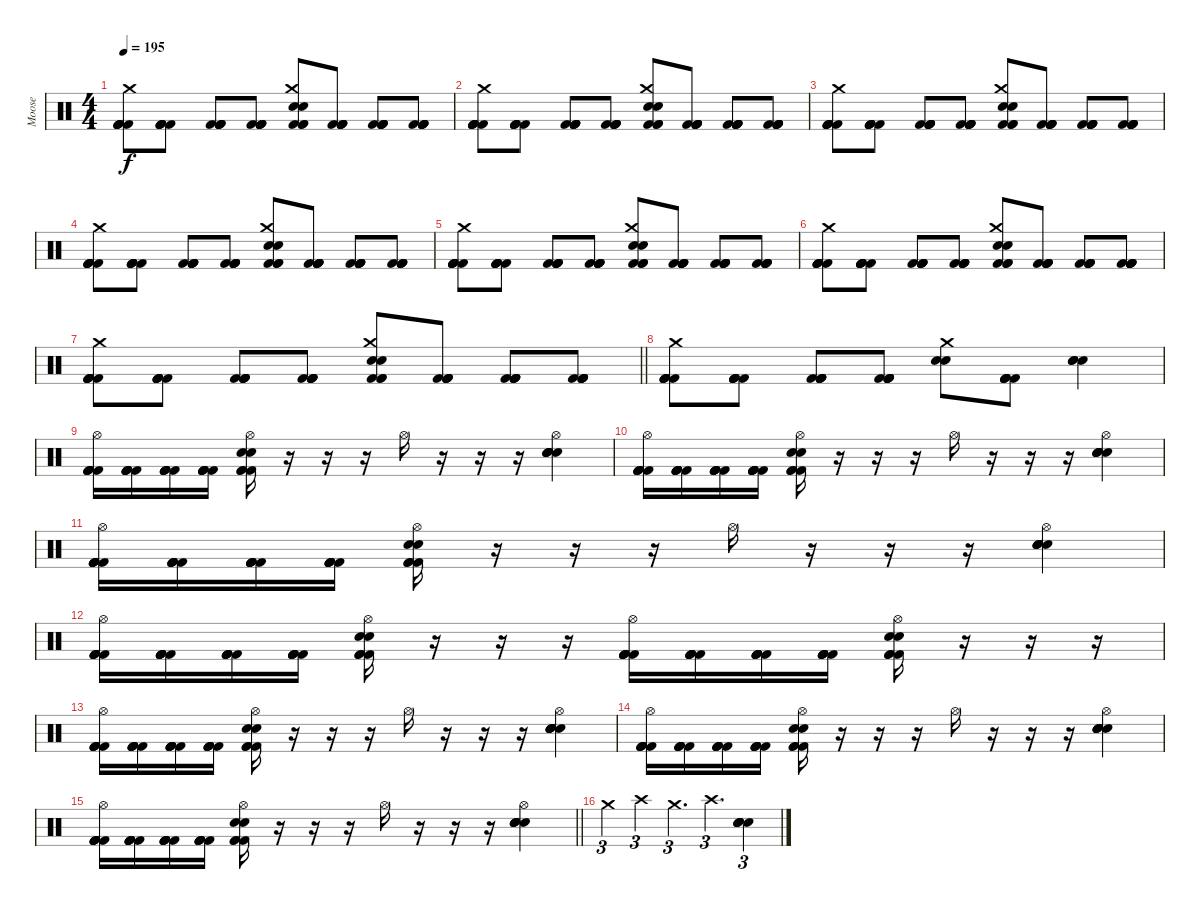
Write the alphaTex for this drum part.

\track ("Moose" "Moose") {instrument percussion}
\staff {score}
\articulation defaults
\ts (4 4)
\tempo 195
\clef neutral
\ks c
("Kick (hit) 2" "Kick (hit) 2" "Kick (hit) 2" "Kick (hit) 2" "Kick (hit) 2" "Crash medium (hit)").8{dy f} ("Kick (hit) 2" "Kick (hit) 2" "Kick (hit) 2" "Kick (hit) 2" "Kick (hit) 2").8 ("Kick (hit) 2" "Kick (hit) 2" "Kick (hit) 2" "Kick (hit) 2" "Kick (hit) 2").8 ("Kick (hit) 2" "Kick (hit) 2" "Kick (hit) 2" "Kick (hit) 2" "Kick (hit) 2").8 ("Kick (hit) 2" "Kick (hit) 2" "Kick (hit) 2" "Electric Snare (hit)" "Electric Snare (hit)" "Crash medium (hit)").8 ("Kick (hit) 2" "Kick (hit) 2" "Kick (hit) 2" "Kick (hit) 2" "Kick (hit) 2").8 ("Kick (hit) 2" "Kick (hit) 2" "Kick (hit) 2" "Kick (hit) 2" "Kick (hit) 2").8 ("Kick (hit) 2" "Kick (hit) 2" "Kick (hit) 2" "Kick (hit) 2" "Kick (hit) 2").8 |
("Kick (hit) 2" "Kick (hit) 2" "Kick (hit) 2" "Kick (hit) 2" "Kick (hit) 2" "Crash medium (hit)").8 ("Kick (hit) 2" "Kick (hit) 2" "Kick (hit) 2" "Kick (hit) 2" "Kick (hit) 2").8 ("Kick (hit) 2" "Kick (hit) 2" "Kick (hit) 2" "Kick (hit) 2" "Kick (hit) 2").8 ("Kick (hit) 2" "Kick (hit) 2" "Kick (hit) 2" "Kick (hit) 2" "Kick (hit) 2").8 ("Kick (hit) 2" "Kick (hit) 2" "Kick (hit) 2" "Electric Snare (hit)" "Electric Snare (hit)" "Crash medium (hit)").8 ("Kick (hit) 2" "Kick (hit) 2" "Kick (hit) 2" "Kick (hit) 2" "Kick (hit) 2").8 ("Kick (hit) 2" "Kick (hit) 2" "Kick (hit) 2" "Kick (hit) 2" "Kick (hit) 2").8 ("Kick (hit) 2" "Kick (hit) 2" "Kick (hit) 2" "Kick (hit) 2" "Kick (hit) 2").8 |
("Kick (hit) 2" "Kick (hit) 2" "Kick (hit) 2" "Kick (hit) 2" "Kick (hit) 2" "Crash medium (hit)").8 ("Kick (hit) 2" "Kick (hit) 2" "Kick (hit) 2" "Kick (hit) 2" "Kick (hit) 2").8 ("Kick (hit) 2" "Kick (hit) 2" "Kick (hit) 2" "Kick (hit) 2" "Kick (hit) 2").8 ("Kick (hit) 2" "Kick (hit) 2" "Kick (hit) 2" "Kick (hit) 2" "Kick (hit) 2").8 ("Kick (hit) 2" "Kick (hit) 2" "Kick (hit) 2" "Electric Snare (hit)" "Electric Snare (hit)" "Crash medium (hit)").8 ("Kick (hit) 2" "Kick (hit) 2" "Kick (hit) 2" "Kick (hit) 2" "Kick (hit) 2").8 ("Kick (hit) 2" "Kick (hit) 2" "Kick (hit) 2" "Kick (hit) 2" "Kick (hit) 2").8 ("Kick (hit) 2" "Kick (hit) 2" "Kick (hit) 2" "Kick (hit) 2" "Kick (hit) 2").8 |
("Kick (hit) 2" "Kick (hit) 2" "Kick (hit) 2" "Kick (hit) 2" "Kick (hit) 2" "Crash medium (hit)").8 ("Kick (hit) 2" "Kick (hit) 2" "Kick (hit) 2" "Kick (hit) 2" "Kick (hit) 2").8 ("Kick (hit) 2" "Kick (hit) 2" "Kick (hit) 2" "Kick (hit) 2" "Kick (hit) 2").8 ("Kick (hit) 2" "Kick (hit) 2" "Kick (hit) 2" "Kick (hit) 2" "Kick (hit) 2").8 ("Kick (hit) 2" "Kick (hit) 2" "Kick (hit) 2" "Electric Snare (hit)" "Electric Snare (hit)" "Crash medium (hit)").8 ("Kick (hit) 2" "Kick (hit) 2" "Kick (hit) 2" "Kick (hit) 2" "Kick (hit) 2").8 ("Kick (hit) 2" "Kick (hit) 2" "Kick (hit) 2" "Kick (hit) 2" "Kick (hit) 2").8 ("Kick (hit) 2" "Kick (hit) 2" "Kick (hit) 2" "Kick (hit) 2" "Kick (hit) 2").8 |
("Kick (hit) 2" "Kick (hit) 2" "Kick (hit) 2" "Kick (hit) 2" "Kick (hit) 2" "Crash medium (hit)").8 ("Kick (hit) 2" "Kick (hit) 2" "Kick (hit) 2" "Kick (hit) 2" "Kick (hit) 2").8 ("Kick (hit) 2" "Kick (hit) 2" "Kick (hit) 2" "Kick (hit) 2" "Kick (hit) 2").8 ("Kick (hit) 2" "Kick (hit) 2" "Kick (hit) 2" "Kick (hit) 2" "Kick (hit) 2").8 ("Kick (hit) 2" "Kick (hit) 2" "Kick (hit) 2" "Electric Snare (hit)" "Electric Snare (hit)" "Crash medium (hit)").8 ("Kick (hit) 2" "Kick (hit) 2" "Kick (hit) 2" "Kick (hit) 2" "Kick (hit) 2").8 ("Kick (hit) 2" "Kick (hit) 2" "Kick (hit) 2" "Kick (hit) 2" "Kick (hit) 2").8 ("Kick (hit) 2" "Kick (hit) 2" "Kick (hit) 2" "Kick (hit) 2" "Kick (hit) 2").8 |
("Kick (hit) 2" "Kick (hit) 2" "Kick (hit) 2" "Kick (hit) 2" "Kick (hit) 2" "Crash medium (hit)").8 ("Kick (hit) 2" "Kick (hit) 2" "Kick (hit) 2" "Kick (hit) 2" "Kick (hit) 2").8 ("Kick (hit) 2" "Kick (hit) 2" "Kick (hit) 2" "Kick (hit) 2" "Kick (hit) 2").8 ("Kick (hit) 2" "Kick (hit) 2" "Kick (hit) 2" "Kick (hit) 2" "Kick (hit) 2").8 ("Kick (hit) 2" "Kick (hit) 2" "Kick (hit) 2" "Electric Snare (hit)" "Electric Snare (hit)" "Crash medium (hit)").8 ("Kick (hit) 2" "Kick (hit) 2" "Kick (hit) 2" "Kick (hit) 2" "Kick (hit) 2").8 ("Kick (hit) 2" "Kick (hit) 2" "Kick (hit) 2" "Kick (hit) 2" "Kick (hit) 2").8 ("Kick (hit) 2" "Kick (hit) 2" "Kick (hit) 2" "Kick (hit) 2" "Kick (hit) 2").8 |
\barLineRight lightlight
("Kick (hit) 2" "Kick (hit) 2" "Kick (hit) 2" "Kick (hit) 2" "Kick (hit) 2" "Crash medium (hit)").8 ("Kick (hit) 2" "Kick (hit) 2" "Kick (hit) 2" "Kick (hit) 2" "Kick (hit) 2").8 ("Kick (hit) 2" "Kick (hit) 2" "Kick (hit) 2" "Kick (hit) 2" "Kick (hit) 2").8 ("Kick (hit) 2" "Kick (hit) 2" "Kick (hit) 2" "Kick (hit) 2" "Kick (hit) 2").8 ("Kick (hit) 2" "Kick (hit) 2" "Kick (hit) 2" "Electric Snare (hit)" "Electric Snare (hit)" "Crash medium (hit)").8 ("Kick (hit) 2" "Kick (hit) 2" "Kick (hit) 2" "Kick (hit) 2" "Kick (hit) 2").8 ("Kick (hit) 2" "Kick (hit) 2" "Kick (hit) 2" "Kick (hit) 2" "Kick (hit) 2").8 ("Kick (hit) 2" "Kick (hit) 2" "Kick (hit) 2" "Kick (hit) 2" "Kick (hit) 2").8 |
("Kick (hit) 2" "Kick (hit) 2" "Kick (hit) 2" "Kick (hit) 2" "Kick (hit) 2" "Crash medium (hit)").8 ("Kick (hit) 2" "Kick (hit) 2" "Kick (hit) 2" "Kick (hit) 2" "Kick (hit) 2").8 ("Kick (hit) 2" "Kick (hit) 2" "Kick (hit) 2" "Kick (hit) 2" "Kick (hit) 2").8 ("Kick (hit) 2" "Kick (hit) 2" "Kick (hit) 2" "Kick (hit) 2" "Kick (hit) 2").8 ("Electric Snare (hit)" "Electric Snare (hit)" "Crash medium (hit)").8 ("Kick (hit) 2" "Kick (hit) 2" "Kick (hit) 2" "Kick (hit) 2" "Kick (hit) 2").8 ("Electric Snare (hit)" "Electric Snare (hit)" "Electric Snare (hit)").4 |
("Kick (hit) 2" "Kick (hit) 2" "Kick (hit) 2" "Kick (hit) 2" "Kick (hit) 2" "Hi-Hat (open)").16 ("Kick (hit) 2" "Kick (hit) 2" "Kick (hit) 2" "Kick (hit) 2" "Kick (hit) 2").16 ("Kick (hit) 2" "Kick (hit) 2" "Kick (hit) 2" "Kick (hit) 2" "Kick (hit) 2").16 ("Kick (hit) 2" "Kick (hit) 2" "Kick (hit) 2" "Kick (hit) 2" "Kick (hit) 2").16 ("Kick (hit) 2" "Kick (hit) 2" "Kick (hit) 2" "Electric Snare (hit)" "Electric Snare (hit)" "Hi-Hat (open)").16 r.16 r.16 r.16 "Hi-Hat (open)".16 r.16 r.16 r.16 ("Electric Snare (hit)" "Electric Snare (hit)" "Electric Snare (hit)" "Electric Snare (hit)" "Electric Snare (hit)" "Hi-Hat (open)").4 |
("Kick (hit) 2" "Kick (hit) 2" "Kick (hit) 2" "Kick (hit) 2" "Kick (hit) 2" "Hi-Hat (open)").16 ("Kick (hit) 2" "Kick (hit) 2" "Kick (hit) 2" "Kick (hit) 2" "Kick (hit) 2").16 ("Kick (hit) 2" "Kick (hit) 2" "Kick (hit) 2" "Kick (hit) 2" "Kick (hit) 2").16 ("Kick (hit) 2" "Kick (hit) 2" "Kick (hit) 2" "Kick (hit) 2" "Kick (hit) 2").16 ("Kick (hit) 2" "Kick (hit) 2" "Kick (hit) 2" "Electric Snare (hit)" "Electric Snare (hit)" "Hi-Hat (open)").16 r.16 r.16 r.16 "Hi-Hat (open)".16 r.16 r.16 r.16 ("Electric Snare (hit)" "Electric Snare (hit)" "Electric Snare (hit)" "Electric Snare (hit)" "Electric Snare (hit)" "Hi-Hat (open)").4 |
("Kick (hit) 2" "Kick (hit) 2" "Kick (hit) 2" "Kick (hit) 2" "Kick (hit) 2" "Hi-Hat (open)").16 ("Kick (hit) 2" "Kick (hit) 2" "Kick (hit) 2" "Kick (hit) 2" "Kick (hit) 2").16 ("Kick (hit) 2" "Kick (hit) 2" "Kick (hit) 2" "Kick (hit) 2" "Kick (hit) 2").16 ("Kick (hit) 2" "Kick (hit) 2" "Kick (hit) 2" "Kick (hit) 2" "Kick (hit) 2").16 ("Kick (hit) 2" "Kick (hit) 2" "Kick (hit) 2" "Electric Snare (hit)" "Electric Snare (hit)" "Hi-Hat (open)").16 r.16 r.16 r.16 "Hi-Hat (open)".16 r.16 r.16 r.16 ("Electric Snare (hit)" "Electric Snare (hit)" "Electric Snare (hit)" "Electric Snare (hit)" "Electric Snare (hit)" "Hi-Hat (open)").4 |
("Kick (hit) 2" "Kick (hit) 2" "Kick (hit) 2" "Kick (hit) 2" "Kick (hit) 2" "Hi-Hat (open)").16 ("Kick (hit) 2" "Kick (hit) 2" "Kick (hit) 2" "Kick (hit) 2" "Kick (hit) 2").16 ("Kick (hit) 2" "Kick (hit) 2" "Kick (hit) 2" "Kick (hit) 2" "Kick (hit) 2").16 ("Kick (hit) 2" "Kick (hit) 2" "Kick (hit) 2" "Kick (hit) 2" "Kick (hit) 2").16 ("Kick (hit) 2" "Kick (hit) 2" "Kick (hit) 2" "Electric Snare (hit)" "Electric Snare (hit)" "Hi-Hat (open)").16 r.16 r.16 r.16 ("Kick (hit) 2" "Kick (hit) 2" "Kick (hit) 2" "Kick (hit) 2" "Kick (hit) 2" "Hi-Hat (open)").16 ("Kick (hit) 2" "Kick (hit) 2" "Kick (hit) 2" "Kick (hit) 2" "Kick (hit) 2").16 ("Kick (hit) 2" "Kick (hit) 2" "Kick (hit) 2" "Kick (hit) 2" "Kick (hit) 2").16 ("Kick (hit) 2" "Kick (hit) 2" "Kick (hit) 2" "Kick (hit) 2" "Kick (hit) 2").16 ("Kick (hit) 2" "Kick (hit) 2" "Kick (hit) 2" "Electric Snare (hit)" "Electric Snare (hit)" "Hi-Hat (open)").16 r.16 r.16 r.16 |
("Kick (hit) 2" "Kick (hit) 2" "Kick (hit) 2" "Kick (hit) 2" "Kick (hit) 2" "Hi-Hat (open)").16 ("Kick (hit) 2" "Kick (hit) 2" "Kick (hit) 2" "Kick (hit) 2" "Kick (hit) 2").16 ("Kick (hit) 2" "Kick (hit) 2" "Kick (hit) 2" "Kick (hit) 2" "Kick (hit) 2").16 ("Kick (hit) 2" "Kick (hit) 2" "Kick (hit) 2" "Kick (hit) 2" "Kick (hit) 2").16 ("Kick (hit) 2" "Kick (hit) 2" "Kick (hit) 2" "Electric Snare (hit)" "Electric Snare (hit)" "Hi-Hat (open)").16 r.16 r.16 r.16 "Hi-Hat (open)".16 r.16 r.16 r.16 ("Electric Snare (hit)" "Electric Snare (hit)" "Electric Snare (hit)" "Electric Snare (hit)" "Electric Snare (hit)" "Hi-Hat (open)").4 |
("Kick (hit) 2" "Kick (hit) 2" "Kick (hit) 2" "Kick (hit) 2" "Kick (hit) 2" "Hi-Hat (open)").16 ("Kick (hit) 2" "Kick (hit) 2" "Kick (hit) 2" "Kick (hit) 2" "Kick (hit) 2").16 ("Kick (hit) 2" "Kick (hit) 2" "Kick (hit) 2" "Kick (hit) 2" "Kick (hit) 2").16 ("Kick (hit) 2" "Kick (hit) 2" "Kick (hit) 2" "Kick (hit) 2" "Kick (hit) 2").16 ("Kick (hit) 2" "Kick (hit) 2" "Kick (hit) 2" "Electric Snare (hit)" "Electric Snare (hit)" "Hi-Hat (open)").16 r.16 r.16 r.16 "Hi-Hat (open)".16 r.16 r.16 r.16 ("Electric Snare (hit)" "Electric Snare (hit)" "Electric Snare (hit)" "Electric Snare (hit)" "Electric Snare (hit)" "Hi-Hat (open)").4 |
\barLineRight lightlight
("Kick (hit) 2" "Kick (hit) 2" "Kick (hit) 2" "Kick (hit) 2" "Kick (hit) 2" "Hi-Hat (open)").16 ("Kick (hit) 2" "Kick (hit) 2" "Kick (hit) 2" "Kick (hit) 2" "Kick (hit) 2").16 ("Kick (hit) 2" "Kick (hit) 2" "Kick (hit) 2" "Kick (hit) 2" "Kick (hit) 2").16 ("Kick (hit) 2" "Kick (hit) 2" "Kick (hit) 2" "Kick (hit) 2" "Kick (hit) 2").16 ("Kick (hit) 2" "Kick (hit) 2" "Kick (hit) 2" "Electric Snare (hit)" "Electric Snare (hit)" "Hi-Hat (open)").16 r.16 r.16 r.16 "Hi-Hat (open)".16 r.16 r.16 r.16 ("Electric Snare (hit)" "Electric Snare (hit)" "Electric Snare (hit)" "Electric Snare (hit)" "Electric Snare (hit)" "Hi-Hat (open)").4 |
"Crash medium (hit)".4{tu (3 2)} "Crash high (hit)".4{tu (3 2)} "Crash medium (hit)".4{d tu (3 2)} "Crash high (hit)".4{d tu (3 2)} ("Electric Snare (hit)" "Electric Snare (hit)" "Electric Snare (hit)" "Electric Snare (hit)" "Electric Snare (hit)").4{tu (3 2)}
